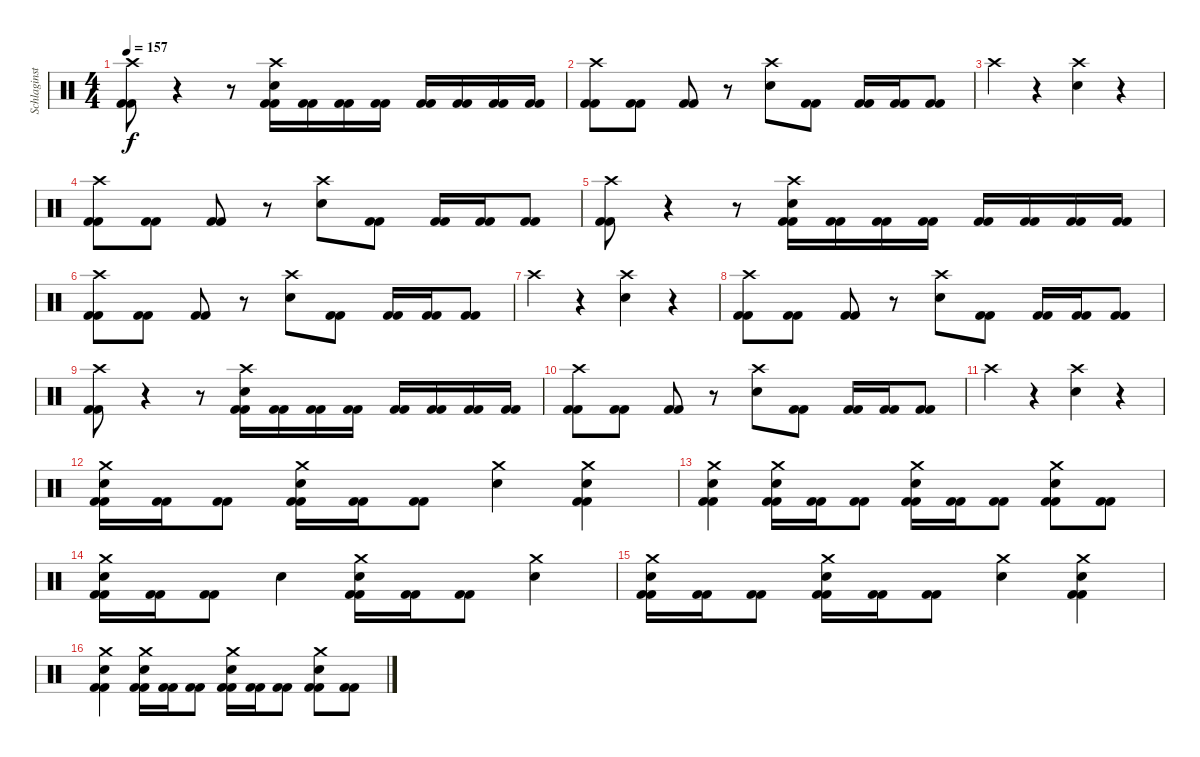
\track ("Schlaginstrumente - Auswahl" "Schlaginst") {instrument percussion}
\staff {score}
\articulation defaults
\ts (4 4)
\tempo 157
\clef neutral
\ks c
("Crash high (hit)" "Kick (hit) 2" "Kick (hit) 2").8{dy f} r.4 r.8 ("Crash high (hit)" "Electric Snare (hit)" "Kick (hit) 2" "Kick (hit) 2").16 ("Kick (hit) 2" "Kick (hit) 2").16 ("Kick (hit) 2" "Kick (hit) 2").16 ("Kick (hit) 2" "Kick (hit) 2").16 ("Kick (hit) 2" "Kick (hit) 2").16 ("Kick (hit) 2" "Kick (hit) 2").16 ("Kick (hit) 2" "Kick (hit) 2").16 ("Kick (hit) 2" "Kick (hit) 2").16 |
("Crash high (hit)" "Kick (hit) 2" "Kick (hit) 2").8 ("Kick (hit) 2" "Kick (hit) 2").8 ("Kick (hit) 2" "Kick (hit) 2").8 r.8 ("Crash high (hit)" "Electric Snare (hit)").8 ("Kick (hit) 2" "Kick (hit) 2").8 ("Kick (hit) 2" "Kick (hit) 2").16 ("Kick (hit) 2" "Kick (hit) 2").16 ("Kick (hit) 2" "Kick (hit) 2").8 |
"Crash high (hit)".4 r.4 ("Crash high (hit)" "Electric Snare (hit)").4 r.4 |
("Crash high (hit)" "Kick (hit) 2" "Kick (hit) 2").8 ("Kick (hit) 2" "Kick (hit) 2").8 ("Kick (hit) 2" "Kick (hit) 2").8 r.8 ("Crash high (hit)" "Electric Snare (hit)").8 ("Kick (hit) 2" "Kick (hit) 2").8 ("Kick (hit) 2" "Kick (hit) 2").16 ("Kick (hit) 2" "Kick (hit) 2").16 ("Kick (hit) 2" "Kick (hit) 2").8 |
("Crash high (hit)" "Kick (hit) 2" "Kick (hit) 2").8 r.4 r.8 ("Crash high (hit)" "Electric Snare (hit)" "Kick (hit) 2" "Kick (hit) 2").16 ("Kick (hit) 2" "Kick (hit) 2").16 ("Kick (hit) 2" "Kick (hit) 2").16 ("Kick (hit) 2" "Kick (hit) 2").16 ("Kick (hit) 2" "Kick (hit) 2").16 ("Kick (hit) 2" "Kick (hit) 2").16 ("Kick (hit) 2" "Kick (hit) 2").16 ("Kick (hit) 2" "Kick (hit) 2").16 |
("Crash high (hit)" "Kick (hit) 2" "Kick (hit) 2").8 ("Kick (hit) 2" "Kick (hit) 2").8 ("Kick (hit) 2" "Kick (hit) 2").8 r.8 ("Crash high (hit)" "Electric Snare (hit)").8 ("Kick (hit) 2" "Kick (hit) 2").8 ("Kick (hit) 2" "Kick (hit) 2").16 ("Kick (hit) 2" "Kick (hit) 2").16 ("Kick (hit) 2" "Kick (hit) 2").8 |
"Crash high (hit)".4 r.4 ("Crash high (hit)" "Electric Snare (hit)").4 r.4 |
("Crash high (hit)" "Kick (hit) 2" "Kick (hit) 2").8 ("Kick (hit) 2" "Kick (hit) 2").8 ("Kick (hit) 2" "Kick (hit) 2").8 r.8 ("Crash high (hit)" "Electric Snare (hit)").8 ("Kick (hit) 2" "Kick (hit) 2").8 ("Kick (hit) 2" "Kick (hit) 2").16 ("Kick (hit) 2" "Kick (hit) 2").16 ("Kick (hit) 2" "Kick (hit) 2").8 |
("Crash high (hit)" "Kick (hit) 2" "Kick (hit) 2").8 r.4 r.8 ("Crash high (hit)" "Electric Snare (hit)" "Kick (hit) 2" "Kick (hit) 2").16 ("Kick (hit) 2" "Kick (hit) 2").16 ("Kick (hit) 2" "Kick (hit) 2").16 ("Kick (hit) 2" "Kick (hit) 2").16 ("Kick (hit) 2" "Kick (hit) 2").16 ("Kick (hit) 2" "Kick (hit) 2").16 ("Kick (hit) 2" "Kick (hit) 2").16 ("Kick (hit) 2" "Kick (hit) 2").16 |
("Crash high (hit)" "Kick (hit) 2" "Kick (hit) 2").8 ("Kick (hit) 2" "Kick (hit) 2").8 ("Kick (hit) 2" "Kick (hit) 2").8 r.8 ("Crash high (hit)" "Electric Snare (hit)").8 ("Kick (hit) 2" "Kick (hit) 2").8 ("Kick (hit) 2" "Kick (hit) 2").16 ("Kick (hit) 2" "Kick (hit) 2").16 ("Kick (hit) 2" "Kick (hit) 2").8 |
"Crash high (hit)".4 r.4 ("Crash high (hit)" "Electric Snare (hit)").4 r.4 |
("Crash medium (hit)" "Electric Snare (hit)" "Kick (hit) 2" "Kick (hit) 2").16 ("Kick (hit) 2" "Kick (hit) 2").16 ("Kick (hit) 2" "Kick (hit) 2").8 ("Crash medium (hit)" "Electric Snare (hit)" "Kick (hit) 2" "Kick (hit) 2").16 ("Kick (hit) 2" "Kick (hit) 2").16 ("Kick (hit) 2" "Kick (hit) 2").8 ("Crash medium (hit)" "Electric Snare (hit)").4 ("Crash medium (hit)" "Electric Snare (hit)" "Kick (hit) 2" "Kick (hit) 2").4 |
("Crash medium (hit)" "Electric Snare (hit)" "Kick (hit) 2" "Kick (hit) 2").4 ("Crash medium (hit)" "Electric Snare (hit)" "Kick (hit) 2" "Kick (hit) 2").16 ("Kick (hit) 2" "Kick (hit) 2").16 ("Kick (hit) 2" "Kick (hit) 2").8 ("Crash medium (hit)" "Electric Snare (hit)" "Kick (hit) 2" "Kick (hit) 2").16 ("Kick (hit) 2" "Kick (hit) 2").16 ("Kick (hit) 2" "Kick (hit) 2").8 ("Crash medium (hit)" "Electric Snare (hit)" "Kick (hit) 2" "Kick (hit) 2").8 ("Kick (hit) 2" "Kick (hit) 2").8 |
("Crash medium (hit)" "Electric Snare (hit)" "Kick (hit) 2" "Kick (hit) 2").16 ("Kick (hit) 2" "Kick (hit) 2").16 ("Kick (hit) 2" "Kick (hit) 2").8 "Electric Snare (hit)".4 ("Crash medium (hit)" "Electric Snare (hit)" "Kick (hit) 2" "Kick (hit) 2").16 ("Kick (hit) 2" "Kick (hit) 2").16 ("Kick (hit) 2" "Kick (hit) 2").8 ("Crash medium (hit)" "Electric Snare (hit)").4 |
("Crash medium (hit)" "Electric Snare (hit)" "Kick (hit) 2" "Kick (hit) 2").16 ("Kick (hit) 2" "Kick (hit) 2").16 ("Kick (hit) 2" "Kick (hit) 2").8 ("Crash medium (hit)" "Electric Snare (hit)" "Kick (hit) 2" "Kick (hit) 2").16 ("Kick (hit) 2" "Kick (hit) 2").16 ("Kick (hit) 2" "Kick (hit) 2").8 ("Crash medium (hit)" "Electric Snare (hit)").4 ("Crash medium (hit)" "Electric Snare (hit)" "Kick (hit) 2" "Kick (hit) 2").4 |
("Crash medium (hit)" "Electric Snare (hit)" "Kick (hit) 2" "Kick (hit) 2").4 ("Crash medium (hit)" "Electric Snare (hit)" "Kick (hit) 2" "Kick (hit) 2").16 ("Kick (hit) 2" "Kick (hit) 2").16 ("Kick (hit) 2" "Kick (hit) 2").8 ("Crash medium (hit)" "Electric Snare (hit)" "Kick (hit) 2" "Kick (hit) 2").16 ("Kick (hit) 2" "Kick (hit) 2").16 ("Kick (hit) 2" "Kick (hit) 2").8 ("Crash medium (hit)" "Electric Snare (hit)" "Kick (hit) 2" "Kick (hit) 2").8 ("Kick (hit) 2" "Kick (hit) 2").8
